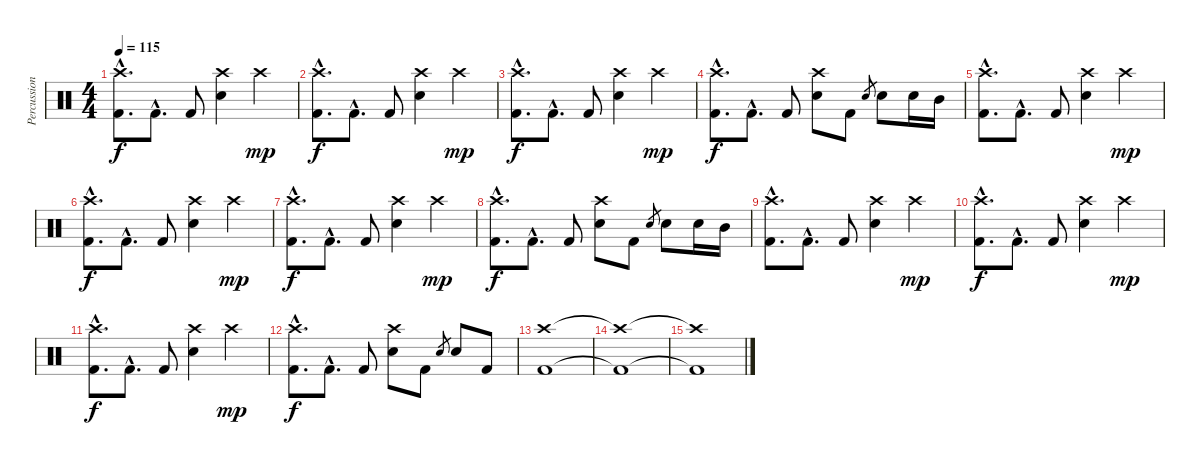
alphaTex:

\track ("Percussion" "Percussion") {instrument percussion}
\staff {score}
\articulation defaults
\ts (4 4)
\tempo 115
\clef neutral
\ks c
("Crash high (hit)"{hac} "Kick (hit) 2"{hac}).8{d dy f} "Kick (hit) 2"{hac}.8{d} "Kick (hit) 2".8 ("Crash high (hit)" "Electric Snare (hit)").4 "Crash high (hit)".4{dy mp} |
("Crash high (hit)"{hac} "Kick (hit) 2"{hac}).8{d dy f} "Kick (hit) 2"{hac}.8{d} "Kick (hit) 2".8 ("Crash high (hit)" "Electric Snare (hit)").4 "Crash high (hit)".4{dy mp} |
("Crash high (hit)"{hac} "Kick (hit) 2"{hac}).8{d dy f} "Kick (hit) 2"{hac}.8{d} "Kick (hit) 2".8 ("Crash high (hit)" "Electric Snare (hit)").4 "Crash high (hit)".4{dy mp} |
("Crash high (hit)"{hac} "Kick (hit) 2"{hac}).8{d dy f} "Kick (hit) 2"{hac}.8{d} "Kick (hit) 2".8 ("Crash high (hit)" "Electric Snare (hit)").8 "Kick (hit) 2".8 "Electric Snare (hit)".8{gr} "Electric Snare (hit)".8 "Electric Snare (hit)".16 "Mid Tom (hit)".16 |
("Crash high (hit)"{hac} "Kick (hit) 2"{hac}).8{d} "Kick (hit) 2"{hac}.8{d} "Kick (hit) 2".8 ("Crash high (hit)" "Electric Snare (hit)").4 "Crash high (hit)".4{dy mp} |
("Crash high (hit)"{hac} "Kick (hit) 2"{hac}).8{d dy f} "Kick (hit) 2"{hac}.8{d} "Kick (hit) 2".8 ("Crash high (hit)" "Electric Snare (hit)").4 "Crash high (hit)".4{dy mp} |
("Crash high (hit)"{hac} "Kick (hit) 2"{hac}).8{d dy f} "Kick (hit) 2"{hac}.8{d} "Kick (hit) 2".8 ("Crash high (hit)" "Electric Snare (hit)").4 "Crash high (hit)".4{dy mp} |
("Crash high (hit)"{hac} "Kick (hit) 2"{hac}).8{d dy f} "Kick (hit) 2"{hac}.8{d} "Kick (hit) 2".8 ("Crash high (hit)" "Electric Snare (hit)").8 "Kick (hit) 2".8 "Electric Snare (hit)".8{gr} "Electric Snare (hit)".8 "Electric Snare (hit)".16 "Mid Tom (hit)".16 |
("Crash high (hit)"{hac} "Kick (hit) 2"{hac}).8{d} "Kick (hit) 2"{hac}.8{d} "Kick (hit) 2".8 ("Crash high (hit)" "Electric Snare (hit)").4 "Crash high (hit)".4{dy mp} |
("Crash high (hit)"{hac} "Kick (hit) 2"{hac}).8{d dy f} "Kick (hit) 2"{hac}.8{d} "Kick (hit) 2".8 ("Crash high (hit)" "Electric Snare (hit)").4 "Crash high (hit)".4{dy mp} |
("Crash high (hit)"{hac} "Kick (hit) 2"{hac}).8{d dy f} "Kick (hit) 2"{hac}.8{d} "Kick (hit) 2".8 ("Crash high (hit)" "Electric Snare (hit)").4 "Crash high (hit)".4{dy mp} |
("Crash high (hit)"{hac} "Kick (hit) 2"{hac}).8{d dy f} "Kick (hit) 2"{hac}.8{d} "Kick (hit) 2".8 ("Crash high (hit)" "Electric Snare (hit)").8 "Kick (hit) 2".8 "Electric Snare (hit)".8{gr} "Electric Snare (hit)".8 "Kick (hit) 2".8 |
("Crash high (hit)" "Kick (hit) 2").1 |
("Crash high (hit)"{t} "Kick (hit) 2"{t}).1 |
("Crash high (hit)"{t} "Kick (hit) 2"{t}).1
